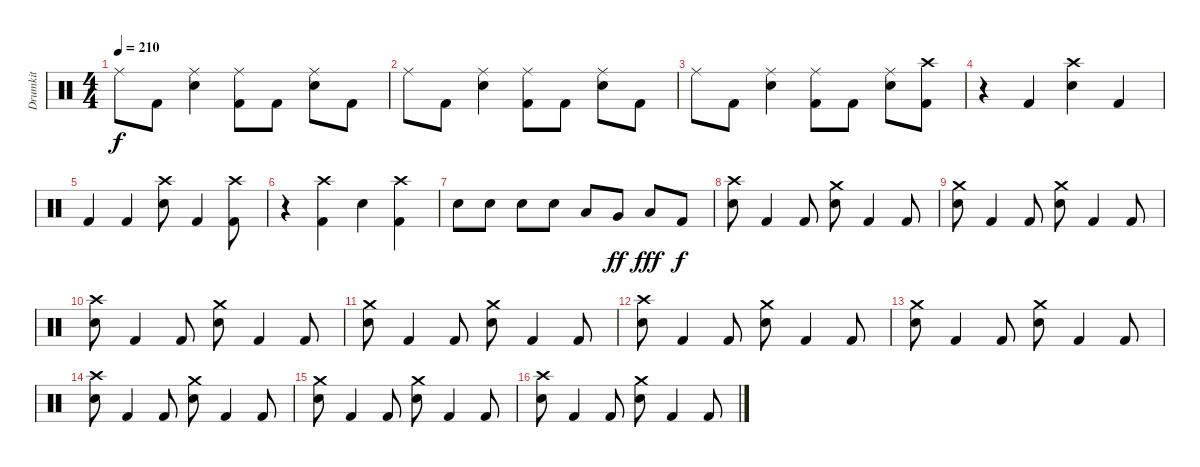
\track ("Drumkit" "Drumkit") {instrument percussion}
\staff {score}
\articulation defaults
\ts (4 4)
\tempo 210
\clef neutral
\ks c "Ride (middle)".8{dy f} "Kick (hit) 2".8
("Ride (middle)" "Electric Snare (hit)").4 ("Ride (middle)" "Kick (hit) 2").8 "Kick (hit) 2".8 ("Ride (middle)" "Electric Snare (hit)").8 "Kick (hit) 2".8 |
"Ride (middle)".8 "Kick (hit) 2".8 ("Ride (middle)" "Electric Snare (hit)").4 ("Ride (middle)" "Kick (hit) 2").8 "Kick (hit) 2".8 ("Ride (middle)" "Electric Snare (hit)").8 "Kick (hit) 2".8 |
"Ride (middle)".8 "Kick (hit) 2".8 ("Ride (middle)" "Electric Snare (hit)").4 ("Ride (middle)" "Kick (hit) 2").8 "Kick (hit) 2".8 ("Ride (middle)" "Electric Snare (hit)").8 ("Crash high (hit)" "Kick (hit) 2").8 |
r.4 "Kick (hit) 2".4 ("Crash high (hit)" "Electric Snare (hit)").4 "Kick (hit) 2".4 |
"Kick (hit) 2".4 "Kick (hit) 2".4 ("Crash high (hit)" "Electric Snare (hit)").8 "Kick (hit) 2".4 ("Crash high (hit)" "Kick (hit) 2").8 |
r.4 ("Crash high (hit)" "Kick (hit) 2").4 "Electric Snare (hit)".4 ("Crash high (hit)" "Kick (hit) 2").4 |
"Electric Snare (hit)".8 "Electric Snare (hit)".8 "Electric Snare (hit)".8 "Electric Snare (hit)".8 "Low Tom (hit)".8 "Very Low Tom (hit)".8{dy ff} "Low Floor Tom (hit)".8{dy fff} "Kick (hit) 2".8{dy f} |
("Crash high (hit)" "Electric Snare (hit)").8 "Kick (hit) 2".4 "Kick (hit) 2".8 ("Crash medium (hit)" "Electric Snare (hit)").8 "Kick (hit) 2".4 "Kick (hit) 2".8 |
("Crash medium (hit)" "Electric Snare (hit)").8 "Kick (hit) 2".4 "Kick (hit) 2".8 ("Crash medium (hit)" "Electric Snare (hit)").8 "Kick (hit) 2".4 "Kick (hit) 2".8 |
("Crash high (hit)" "Electric Snare (hit)").8 "Kick (hit) 2".4 "Kick (hit) 2".8 ("Crash medium (hit)" "Electric Snare (hit)").8 "Kick (hit) 2".4 "Kick (hit) 2".8 |
("Crash medium (hit)" "Electric Snare (hit)").8 "Kick (hit) 2".4 "Kick (hit) 2".8 ("Crash medium (hit)" "Electric Snare (hit)").8 "Kick (hit) 2".4 "Kick (hit) 2".8 |
("Crash high (hit)" "Electric Snare (hit)").8 "Kick (hit) 2".4 "Kick (hit) 2".8 ("Crash medium (hit)" "Electric Snare (hit)").8 "Kick (hit) 2".4 "Kick (hit) 2".8 |
("Crash medium (hit)" "Electric Snare (hit)").8 "Kick (hit) 2".4 "Kick (hit) 2".8 ("Crash medium (hit)" "Electric Snare (hit)").8 "Kick (hit) 2".4 "Kick (hit) 2".8 |
("Crash high (hit)" "Electric Snare (hit)").8 "Kick (hit) 2".4 "Kick (hit) 2".8 ("Crash medium (hit)" "Electric Snare (hit)").8 "Kick (hit) 2".4 "Kick (hit) 2".8 |
("Crash medium (hit)" "Electric Snare (hit)").8 "Kick (hit) 2".4 "Kick (hit) 2".8 ("Crash medium (hit)" "Electric Snare (hit)").8 "Kick (hit) 2".4 "Kick (hit) 2".8 |
("Crash high (hit)" "Electric Snare (hit)").8 "Kick (hit) 2".4 "Kick (hit) 2".8 ("Crash medium (hit)" "Electric Snare (hit)").8 "Kick (hit) 2".4 "Kick (hit) 2".8
